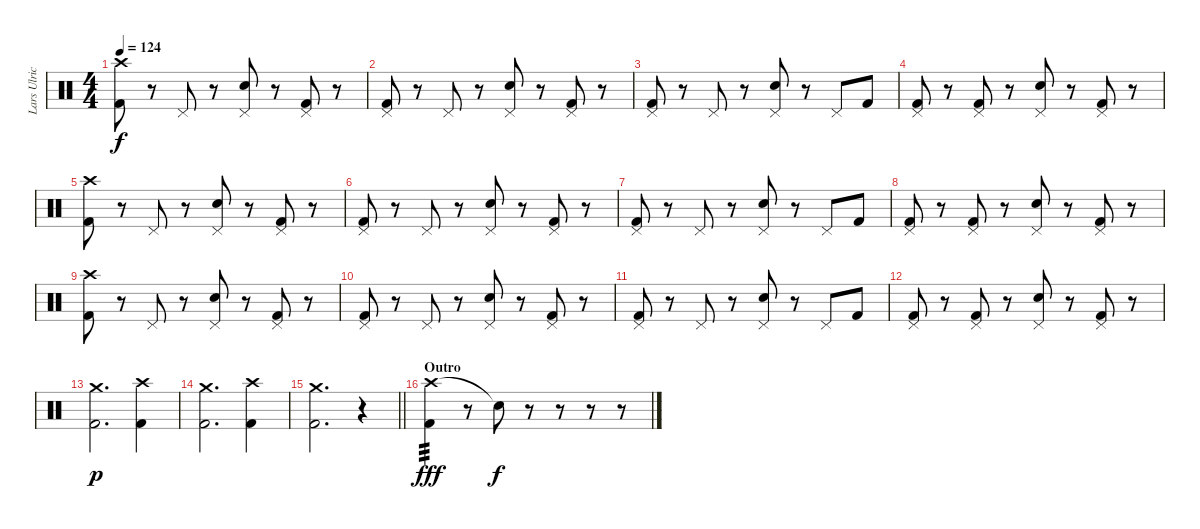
\track ("Lars Ulrich" "Lars Ulric") {instrument percussion}
\staff {score}
\articulation defaults
\ts (4 4)
\tempo 124
\clef neutral
\ks c
("Crash high (hit)" "Kick (hit) 2").8{dy f} r.8 "Pedal Hi-Hat (hit)".8 r.8 ("Pedal Hi-Hat (hit)" "Electric Snare (hit)").8 r.8 ("Pedal Hi-Hat (hit)" "Kick (hit) 2").8 r.8 |
("Pedal Hi-Hat (hit)" "Kick (hit) 2").8 r.8 "Pedal Hi-Hat (hit)".8 r.8 ("Pedal Hi-Hat (hit)" "Electric Snare (hit)").8 r.8 ("Pedal Hi-Hat (hit)" "Kick (hit) 2").8 r.8 |
("Pedal Hi-Hat (hit)" "Kick (hit) 2").8 r.8 "Pedal Hi-Hat (hit)".8 r.8 ("Pedal Hi-Hat (hit)" "Electric Snare (hit)").8 r.8 "Pedal Hi-Hat (hit)".8 "Kick (hit) 2".8 |
("Pedal Hi-Hat (hit)" "Kick (hit) 2").8 r.8 ("Pedal Hi-Hat (hit)" "Kick (hit) 2").8 r.8 ("Pedal Hi-Hat (hit)" "Electric Snare (hit)").8 r.8 ("Pedal Hi-Hat (hit)" "Kick (hit) 2").8 r.8 |
("Crash high (hit)" "Kick (hit) 2").8 r.8 "Pedal Hi-Hat (hit)".8 r.8 ("Pedal Hi-Hat (hit)" "Electric Snare (hit)").8 r.8 ("Pedal Hi-Hat (hit)" "Kick (hit) 2").8 r.8 |
("Pedal Hi-Hat (hit)" "Kick (hit) 2").8 r.8 "Pedal Hi-Hat (hit)".8 r.8 ("Pedal Hi-Hat (hit)" "Electric Snare (hit)").8 r.8 ("Pedal Hi-Hat (hit)" "Kick (hit) 2").8 r.8 |
("Pedal Hi-Hat (hit)" "Kick (hit) 2").8 r.8 "Pedal Hi-Hat (hit)".8 r.8 ("Pedal Hi-Hat (hit)" "Electric Snare (hit)").8 r.8 "Pedal Hi-Hat (hit)".8 "Kick (hit) 2".8 |
("Pedal Hi-Hat (hit)" "Kick (hit) 2").8 r.8 ("Pedal Hi-Hat (hit)" "Kick (hit) 2").8 r.8 ("Pedal Hi-Hat (hit)" "Electric Snare (hit)").8 r.8 ("Pedal Hi-Hat (hit)" "Kick (hit) 2").8 r.8 |
("Crash high (hit)" "Kick (hit) 2").8 r.8 "Pedal Hi-Hat (hit)".8 r.8 ("Pedal Hi-Hat (hit)" "Electric Snare (hit)").8 r.8 ("Pedal Hi-Hat (hit)" "Kick (hit) 2").8 r.8 |
("Pedal Hi-Hat (hit)" "Kick (hit) 2").8 r.8 "Pedal Hi-Hat (hit)".8 r.8 ("Pedal Hi-Hat (hit)" "Electric Snare (hit)").8 r.8 ("Pedal Hi-Hat (hit)" "Kick (hit) 2").8 r.8 |
("Pedal Hi-Hat (hit)" "Kick (hit) 2").8 r.8 "Pedal Hi-Hat (hit)".8 r.8 ("Pedal Hi-Hat (hit)" "Electric Snare (hit)").8 r.8 "Pedal Hi-Hat (hit)".8 "Kick (hit) 2".8 |
("Pedal Hi-Hat (hit)" "Kick (hit) 2").8 r.8 ("Pedal Hi-Hat (hit)" "Kick (hit) 2").8 r.8 ("Pedal Hi-Hat (hit)" "Electric Snare (hit)").8 r.8 ("Pedal Hi-Hat (hit)" "Kick (hit) 2").8 r.8 |
("Crash medium (hit)" "Kick (hit) 2").2{d dy p} ("Crash high (hit)" "Kick (hit) 2").4 |
("Crash medium (hit)" "Kick (hit) 2").2{d} ("Crash high (hit)" "Kick (hit) 2").4 |
\barLineRight lightlight
("Crash medium (hit)" "Kick (hit) 2").2{d} r.4 |
\section ("" "Outro")
("Crash high (hit)" "Kick (hit) 2").4{tp 3 dy fff} r.8 "Snare (hit)"{t}.8{dy f} r.8 r.8 r.8 r.8
